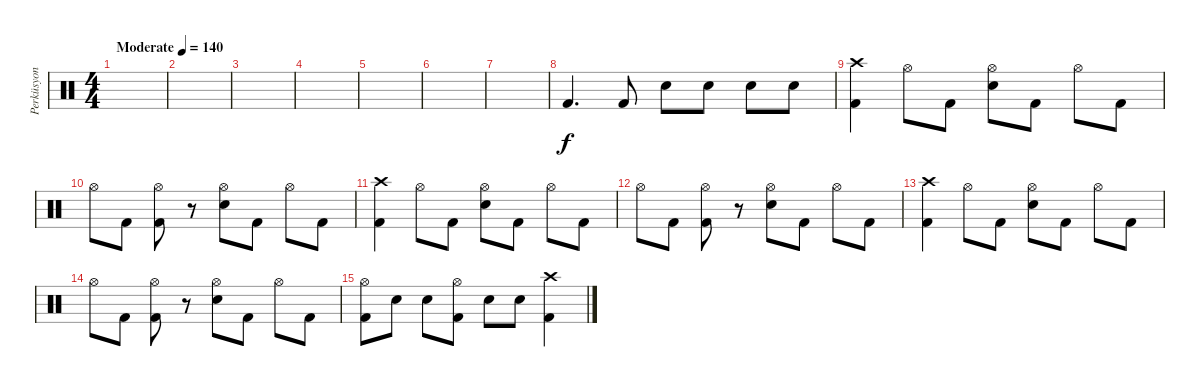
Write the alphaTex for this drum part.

\track ("Perküsyon" "Perküsyon") {instrument percussion}
\staff {score}
\articulation defaults
\ts (4 4)
\tempo (140 "Moderate")
\clef neutral
\ks c
|
|
|
|
|
|
|
"Kick (hit) 2".4{d} "Kick (hit) 2".8 "Electric Snare (hit)".8 "Electric Snare (hit)".8 "Electric Snare (hit)".8 "Electric Snare (hit)".8 |
("Crash high (hit)" "Kick (hit) 2").4 "Hi-Hat (open)".8 "Kick (hit) 2".8 ("Hi-Hat (open)" "Electric Snare (hit)").8 "Kick (hit) 2".8 "Hi-Hat (open)".8 "Kick (hit) 2".8 |
"Hi-Hat (open)".8 "Kick (hit) 2".8 ("Hi-Hat (open)" "Kick (hit) 2").8 r.8 ("Hi-Hat (open)" "Electric Snare (hit)").8 "Kick (hit) 2".8 "Hi-Hat (open)".8 "Kick (hit) 2".8 |
("Crash high (hit)" "Kick (hit) 2").4 "Hi-Hat (open)".8 "Kick (hit) 2".8 ("Hi-Hat (open)" "Electric Snare (hit)").8 "Kick (hit) 2".8 "Hi-Hat (open)".8 "Kick (hit) 2".8 |
"Hi-Hat (open)".8 "Kick (hit) 2".8 ("Hi-Hat (open)" "Kick (hit) 2").8 r.8 ("Hi-Hat (open)" "Electric Snare (hit)").8 "Kick (hit) 2".8 "Hi-Hat (open)".8 "Kick (hit) 2".8 |
("Crash high (hit)" "Kick (hit) 2").4 "Hi-Hat (open)".8 "Kick (hit) 2".8 ("Hi-Hat (open)" "Electric Snare (hit)").8 "Kick (hit) 2".8 "Hi-Hat (open)".8 "Kick (hit) 2".8 |
"Hi-Hat (open)".8 "Kick (hit) 2".8 ("Hi-Hat (open)" "Kick (hit) 2").8 r.8 ("Hi-Hat (open)" "Electric Snare (hit)").8 "Kick (hit) 2".8 "Hi-Hat (open)".8 "Kick (hit) 2".8 |
("Hi-Hat (open)" "Kick (hit) 2").8 "Electric Snare (hit)".8 "Electric Snare (hit)".8 ("Hi-Hat (open)" "Kick (hit) 2").8 "Electric Snare (hit)".8 "Electric Snare (hit)".8 ("Crash high (hit)" "Kick (hit) 2").4
